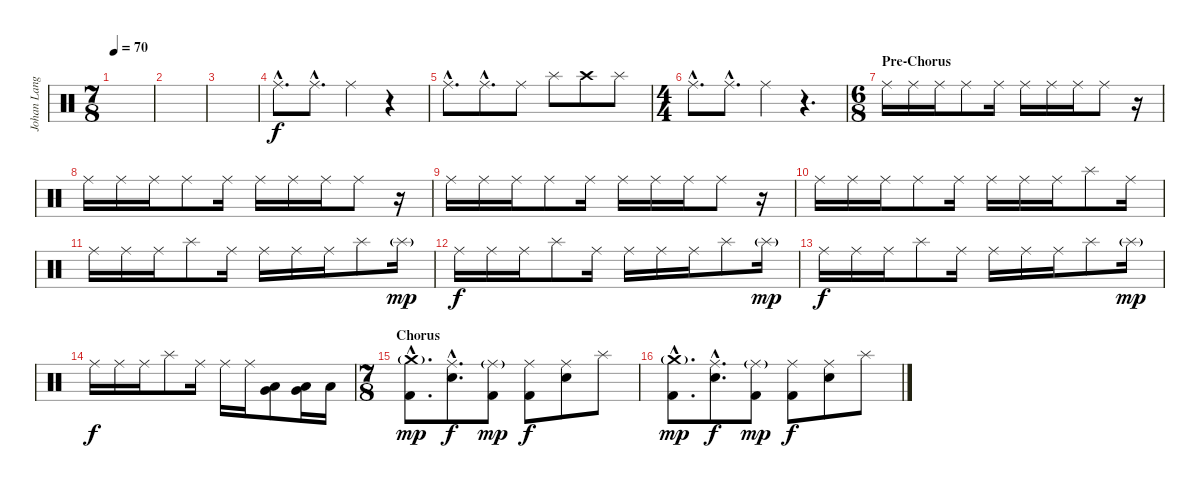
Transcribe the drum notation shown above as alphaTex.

\track ("Johan Langell" "Johan Lang") {instrument percussion}
\staff {score}
\articulation defaults
\ts (7 8)
\tempo 70
\clef neutral
\ks c
|
|
|
"Ride (middle)"{hac}.8{d dy f} "Ride (middle)"{hac}.8{d} "Ride (middle)".4 r.4 |
"Ride (middle)"{hac}.8{d} "Ride (middle)"{hac}.8{d} "Ride (middle)".8 "Splash (hit)".8 "Crash high (hit)".8 "Splash (hit)".8 |
\ts (4 4)
"Ride (middle)"{hac}.8{d} "Ride (middle)"{hac}.8{d} "Ride (middle)".4 r.4{d} |
\ts (6 8)
\section ("" "Pre-Chorus")
"Ride (middle)".16 "Ride (middle)".16 "Ride (middle)".16 "Ride (middle)".8 "Ride (middle)".16 "Ride (middle)".16 "Ride (middle)".16 "Ride (middle)".16 "Ride (middle)".8 r.16 |
"Ride (middle)".16 "Ride (middle)".16 "Ride (middle)".16 "Ride (middle)".8 "Ride (middle)".16 "Ride (middle)".16 "Ride (middle)".16 "Ride (middle)".16 "Ride (middle)".8 r.16 |
"Ride (middle)".16 "Ride (middle)".16 "Ride (middle)".16 "Ride (middle)".8 "Ride (middle)".16 "Ride (middle)".16 "Ride (middle)".16 "Ride (middle)".16 "Ride (middle)".8 r.16 |
"Ride (middle)".16 "Ride (middle)".16 "Ride (middle)".16 "Ride (middle)".8 "Ride (middle)".16 "Ride (middle)".16 "Ride (middle)".16 "Ride (middle)".16 "Splash (hit)".8 "Ride (middle)".16 |
"Ride (middle)".16 "Ride (middle)".16 "Ride (middle)".16 "Splash (hit)".8 "Ride (middle)".16 "Ride (middle)".16 "Ride (middle)".16 "Ride (middle)".16 "Splash (hit)".8 "Splash (hit)"{g}.16{dy mp} |
"Ride (middle)".16{dy f} "Ride (middle)".16 "Ride (middle)".16 "Splash (hit)".8 "Ride (middle)".16 "Ride (middle)".16 "Ride (middle)".16 "Ride (middle)".16 "Splash (hit)".8 "Splash (hit)"{g}.16{dy mp} |
"Ride (middle)".16{dy f} "Ride (middle)".16 "Ride (middle)".16 "Splash (hit)".8 "Ride (middle)".16 "Ride (middle)".16 "Ride (middle)".16 "Ride (middle)".16 "Splash (hit)".8 "Splash (hit)"{g}.16{dy mp} |
"Ride (middle)".16{dy f} "Ride (middle)".16 "Ride (middle)".16 "Splash (hit)".8 "Ride (middle)".16 "Ride (middle)".16 "Ride (middle)".16 ("Low Tom (hit)" "Very Low Tom (hit)").8 ("Very Low Tom (hit)" "Low Floor Tom (hit)").16 "Low Floor Tom (hit)".16 |
\ts (7 8)
\section ("" "Chorus")
("Crash medium (hit)"{g hac} "Kick (hit) 2"{hac}).8{d dy mp} ("Ride (middle)"{hac} "Snare (hit) 2"{hac}).8{d dy f} ("Ride (middle)"{g} "Kick (hit) 2").8{dy mp} ("Ride (middle)" "Kick (hit) 2").8{dy f} ("Ride (middle)" "Snare (hit) 2").8 "Splash (hit)".8 |
("Crash medium (hit)"{g hac} "Kick (hit) 2"{hac}).8{d dy mp} ("Ride (middle)"{hac} "Snare (hit) 2"{hac}).8{d dy f} ("Ride (middle)"{g} "Kick (hit) 2").8{dy mp} ("Ride (middle)" "Kick (hit) 2").8{dy f} ("Ride (middle)" "Snare (hit) 2").8 "Splash (hit)".8
